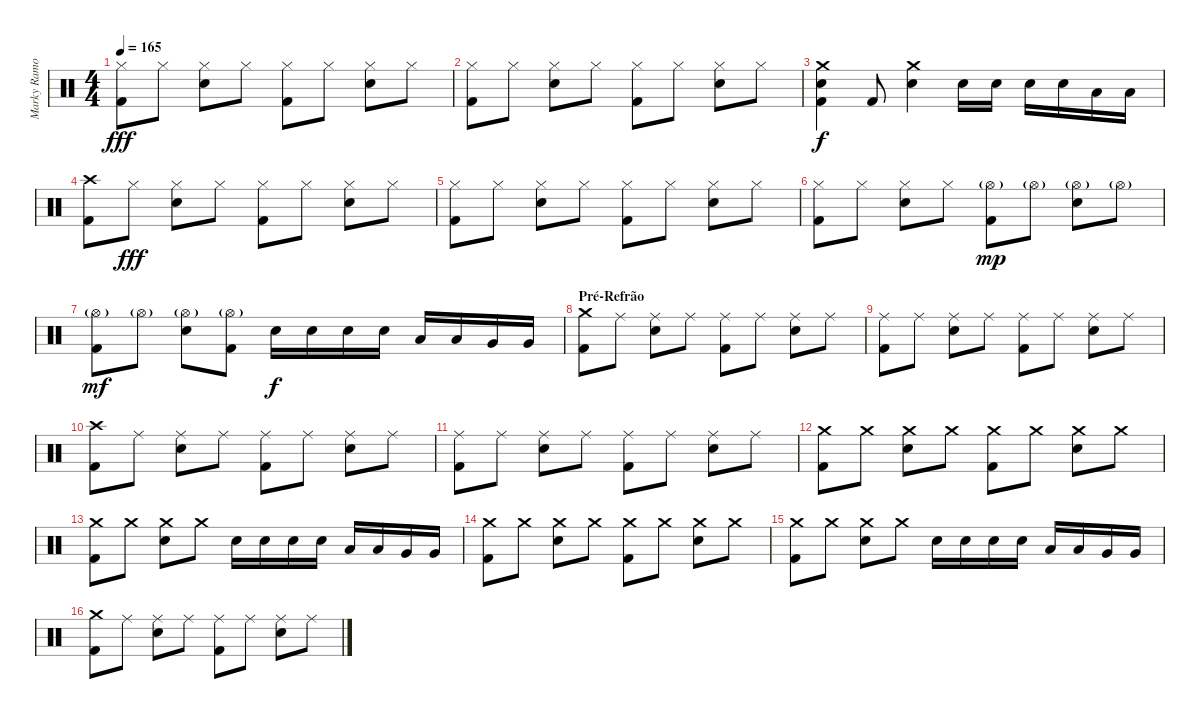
\track ("Marky Ramone, o Próprio" "Marky Ramo") {instrument percussion}
\staff {score}
\articulation defaults
\ts (4 4)
\tempo 165
\clef neutral
\ks c
("Hi-Hat (closed)" "Kick (hit) 2").8{dy fff} "Hi-Hat (closed)".8 ("Hi-Hat (closed)" "Electric Snare (hit)").8 "Hi-Hat (closed)".8 ("Hi-Hat (closed)" "Kick (hit) 2").8 "Hi-Hat (closed)".8 ("Hi-Hat (closed)" "Electric Snare (hit)").8 "Hi-Hat (closed)".8 |
("Hi-Hat (closed)" "Kick (hit) 2").8 "Hi-Hat (closed)".8 ("Hi-Hat (closed)" "Electric Snare (hit)").8 "Hi-Hat (closed)".8 ("Hi-Hat (closed)" "Kick (hit) 2").8 "Hi-Hat (closed)".8 ("Hi-Hat (closed)" "Electric Snare (hit)").8 "Hi-Hat (closed)".8 |
("Crash medium (hit)" "Electric Snare (hit)" "Kick (hit) 2").4{dy f} "Kick (hit) 2".8 ("Crash medium (hit)" "Electric Snare (hit)").4 "Electric Snare (hit)".16 "Electric Snare (hit)".16 "Electric Snare (hit)".16 "Electric Snare (hit)".16 "Low Tom (hit)".16 "Low Tom (hit)".16 |
("Crash high (hit)" "Kick (hit) 2").8 "Hi-Hat (closed)".8{dy fff} ("Hi-Hat (closed)" "Electric Snare (hit)").8 "Hi-Hat (closed)".8 ("Hi-Hat (closed)" "Kick (hit) 2").8 "Hi-Hat (closed)".8 ("Hi-Hat (closed)" "Electric Snare (hit)").8 "Hi-Hat (closed)".8 |
("Hi-Hat (closed)" "Kick (hit) 2").8 "Hi-Hat (closed)".8 ("Hi-Hat (closed)" "Electric Snare (hit)").8 "Hi-Hat (closed)".8 ("Hi-Hat (closed)" "Kick (hit) 2").8 "Hi-Hat (closed)".8 ("Hi-Hat (closed)" "Electric Snare (hit)").8 "Hi-Hat (closed)".8 |
("Hi-Hat (closed)" "Kick (hit) 2").8 "Hi-Hat (closed)".8 ("Hi-Hat (closed)" "Electric Snare (hit)").8 "Hi-Hat (closed)".8 ("Hi-Hat (open)"{g} "Kick (hit) 2").8{dy mp} "Hi-Hat (open)"{g}.8 ("Hi-Hat (open)"{g} "Electric Snare (hit)").8 "Hi-Hat (open)"{g}.8 |
("Hi-Hat (open)"{g} "Kick (hit) 2").8{dy mf} "Hi-Hat (open)"{g}.8 ("Hi-Hat (open)"{g} "Electric Snare (hit)").8 ("Hi-Hat (open)"{g} "Kick (hit) 2").8 "Electric Snare (hit)".16{dy f} "Electric Snare (hit)".16 "Electric Snare (hit)".16 "Electric Snare (hit)".16 "Low Tom (hit)".16 "Low Tom (hit)".16 "Very Low Tom (hit)".16 "Very Low Tom (hit)".16 |
\section ("" "Pré-Refrão")
("Crash medium (hit)" "Kick (hit) 2").8 "Ride (middle)".8 ("Ride (middle)" "Electric Snare (hit)").8 "Ride (middle)".8 ("Ride (middle)" "Kick (hit) 2").8 "Ride (middle)".8 ("Ride (middle)" "Electric Snare (hit)").8 "Ride (middle)".8 |
("Ride (middle)" "Kick (hit) 2").8 "Ride (middle)".8 ("Ride (middle)" "Electric Snare (hit)").8 "Ride (middle)".8 ("Ride (middle)" "Kick (hit) 2").8 "Ride (middle)".8 ("Ride (middle)" "Electric Snare (hit)").8 "Ride (middle)".8 |
("Crash high (hit)" "Kick (hit) 2").8 "Ride (middle)".8 ("Ride (middle)" "Electric Snare (hit)").8 "Ride (middle)".8 ("Ride (middle)" "Kick (hit) 2").8 "Ride (middle)".8 ("Ride (middle)" "Electric Snare (hit)").8 "Ride (middle)".8 |
("Ride (middle)" "Kick (hit) 2").8 "Ride (middle)".8 ("Ride (middle)" "Electric Snare (hit)").8 "Ride (middle)".8 ("Ride (middle)" "Kick (hit) 2").8 "Ride (middle)".8 ("Ride (middle)" "Electric Snare (hit)").8 "Ride (middle)".8 |
("Crash medium (hit)" "Kick (hit) 2").8 "Crash medium (hit)".8 ("Crash medium (hit)" "Electric Snare (hit)").8 "Crash medium (hit)".8 ("Crash medium (hit)" "Kick (hit) 2").8 "Crash medium (hit)".8 ("Crash medium (hit)" "Electric Snare (hit)").8 "Crash medium (hit)".8 |
("Crash medium (hit)" "Kick (hit) 2").8 "Crash medium (hit)".8 ("Crash medium (hit)" "Electric Snare (hit)").8 "Crash medium (hit)".8 "Electric Snare (hit)".16 "Electric Snare (hit)".16 "Electric Snare (hit)".16 "Electric Snare (hit)".16 "Low Tom (hit)".16 "Low Tom (hit)".16 "Very Low Tom (hit)".16 "Very Low Tom (hit)".16 |
("Crash medium (hit)" "Kick (hit) 2").8 "Crash medium (hit)".8 ("Crash medium (hit)" "Electric Snare (hit)").8 "Crash medium (hit)".8 ("Crash medium (hit)" "Kick (hit) 2").8 "Crash medium (hit)".8 ("Crash medium (hit)" "Electric Snare (hit)").8 "Crash medium (hit)".8 |
("Crash medium (hit)" "Kick (hit) 2").8 "Crash medium (hit)".8 ("Crash medium (hit)" "Electric Snare (hit)").8 "Crash medium (hit)".8 "Electric Snare (hit)".16 "Electric Snare (hit)".16 "Electric Snare (hit)".16 "Electric Snare (hit)".16 "Low Tom (hit)".16 "Low Tom (hit)".16 "Very Low Tom (hit)".16 "Very Low Tom (hit)".16 |
("Crash medium (hit)" "Kick (hit) 2").8 "Ride (middle)".8 ("Ride (middle)" "Electric Snare (hit)").8 "Ride (middle)".8 ("Ride (middle)" "Kick (hit) 2").8 "Ride (middle)".8 ("Ride (middle)" "Electric Snare (hit)").8 "Ride (middle)".8
